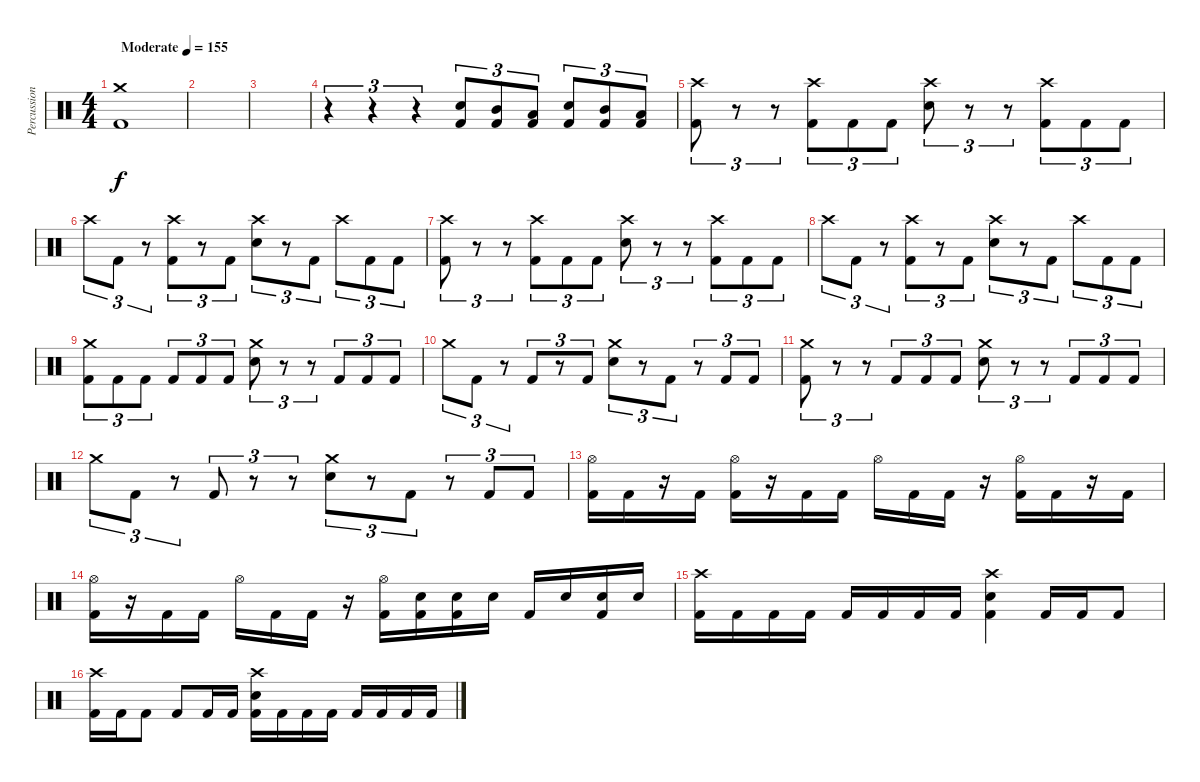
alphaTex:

\track ("Percussion" "Percussion") {instrument percussion}
\staff {score}
\articulation defaults
\ts (4 4)
\tempo (155 "Moderate")
\clef neutral
\ks c
("Crash medium (hit)" "Kick (hit) 2").1{dy f} |
|
|
r.4{tu (3 2)} r.4{tu (3 2)} r.4{tu (3 2)} ("Electric Snare (hit)" "Kick (hit) 2").8{tu (3 2)} ("Mid Tom (hit)" "Kick (hit) 2").8{tu (3 2)} ("Low Tom (hit)" "Kick (hit) 2").8{tu (3 2)} ("Electric Snare (hit)" "Kick (hit) 2").8{tu (3 2)} ("Mid Tom (hit)" "Kick (hit) 2").8{tu (3 2)} ("Low Tom (hit)" "Kick (hit) 2").8{tu (3 2)} |
("Crash high (hit)" "Kick (hit) 2").8{tu (3 2)} r.8{tu (3 2)} r.8{tu (3 2)} ("Crash high (hit)" "Kick (hit) 2").8{tu (3 2)} "Kick (hit) 2".8{tu (3 2)} "Kick (hit) 2".8{tu (3 2)} ("Crash high (hit)" "Electric Snare (hit)").8{tu (3 2)} r.8{tu (3 2)} r.8{tu (3 2)} ("Crash high (hit)" "Kick (hit) 2").8{tu (3 2)} "Kick (hit) 2".8{tu (3 2)} "Kick (hit) 2".8{tu (3 2)} |
"Crash high (hit)".8{tu (3 2)} "Kick (hit) 2".8{tu (3 2)} r.8{tu (3 2)} ("Crash high (hit)" "Kick (hit) 2").8{tu (3 2)} r.8{tu (3 2)} "Kick (hit) 2".8{tu (3 2)} ("Crash high (hit)" "Electric Snare (hit)").8{tu (3 2)} r.8{tu (3 2)} "Kick (hit) 2".8{tu (3 2)} "Crash high (hit)".8{tu (3 2)} "Kick (hit) 2".8{tu (3 2)} "Kick (hit) 2".8{tu (3 2)} |
("Crash high (hit)" "Kick (hit) 2").8{tu (3 2)} r.8{tu (3 2)} r.8{tu (3 2)} ("Crash high (hit)" "Kick (hit) 2").8{tu (3 2)} "Kick (hit) 2".8{tu (3 2)} "Kick (hit) 2".8{tu (3 2)} ("Crash high (hit)" "Electric Snare (hit)").8{tu (3 2)} r.8{tu (3 2)} r.8{tu (3 2)} ("Crash high (hit)" "Kick (hit) 2").8{tu (3 2)} "Kick (hit) 2".8{tu (3 2)} "Kick (hit) 2".8{tu (3 2)} |
"Crash high (hit)".8{tu (3 2)} "Kick (hit) 2".8{tu (3 2)} r.8{tu (3 2)} ("Crash high (hit)" "Kick (hit) 2").8{tu (3 2)} r.8{tu (3 2)} "Kick (hit) 2".8{tu (3 2)} ("Crash high (hit)" "Electric Snare (hit)").8{tu (3 2)} r.8{tu (3 2)} "Kick (hit) 2".8{tu (3 2)} "Crash high (hit)".8{tu (3 2)} "Kick (hit) 2".8{tu (3 2)} "Kick (hit) 2".8{tu (3 2)} |
("Crash medium (hit)" "Kick (hit) 2").8{tu (3 2)} "Kick (hit) 2".8{tu (3 2)} "Kick (hit) 2".8{tu (3 2)} "Kick (hit) 2".8{tu (3 2)} "Kick (hit) 2".8{tu (3 2)} "Kick (hit) 2".8{tu (3 2)} ("Crash medium (hit)" "Electric Snare (hit)").8{tu (3 2)} r.8{tu (3 2)} r.8{tu (3 2)} "Kick (hit) 2".8{tu (3 2)} "Kick (hit) 2".8{tu (3 2)} "Kick (hit) 2".8{tu (3 2)} |
"Crash medium (hit)".8{tu (3 2)} "Kick (hit) 2".8{tu (3 2)} r.8{tu (3 2)} "Kick (hit) 2".8{tu (3 2)} r.8{tu (3 2)} "Kick (hit) 2".8{tu (3 2)} ("Crash medium (hit)" "Electric Snare (hit)").8{tu (3 2)} r.8{tu (3 2)} "Kick (hit) 2".8{tu (3 2)} r.8{tu (3 2)} "Kick (hit) 2".8{tu (3 2)} "Kick (hit) 2".8{tu (3 2)} |
("Crash medium (hit)" "Kick (hit) 2").8{tu (3 2)} r.8{tu (3 2)} r.8{tu (3 2)} "Kick (hit) 2".8{tu (3 2)} "Kick (hit) 2".8{tu (3 2)} "Kick (hit) 2".8{tu (3 2)} ("Crash medium (hit)" "Electric Snare (hit)").8{tu (3 2)} r.8{tu (3 2)} r.8{tu (3 2)} "Kick (hit) 2".8{tu (3 2)} "Kick (hit) 2".8{tu (3 2)} "Kick (hit) 2".8{tu (3 2)} |
"Crash medium (hit)".8{tu (3 2)} "Kick (hit) 2".8{tu (3 2)} r.8{tu (3 2)} "Kick (hit) 2".8{tu (3 2)} r.8{tu (3 2)} r.8{tu (3 2)} ("Crash medium (hit)" "Electric Snare (hit)").8{tu (3 2)} r.8{tu (3 2)} "Kick (hit) 2".8{tu (3 2)} r.8{tu (3 2)} "Kick (hit) 2".8{tu (3 2)} "Kick (hit) 2".8{tu (3 2)} |
("Hi-Hat (open)" "Kick (hit) 2").16 "Kick (hit) 2".16 r.16 "Kick (hit) 2".16 ("Hi-Hat (open)" "Kick (hit) 2").16 r.16 "Kick (hit) 2".16 "Kick (hit) 2".16 "Hi-Hat (open)".16 "Kick (hit) 2".16 "Kick (hit) 2".16 r.16 ("Hi-Hat (open)" "Kick (hit) 2").16 "Kick (hit) 2".16 r.16 "Kick (hit) 2".16 |
("Hi-Hat (open)" "Kick (hit) 2").16 r.16 "Kick (hit) 2".16 "Kick (hit) 2".16 "Hi-Hat (open)".16 "Kick (hit) 2".16 "Kick (hit) 2".16 r.16 ("Hi-Hat (open)" "Kick (hit) 2").16 ("Electric Snare (hit)" "Kick (hit) 2").16 ("Electric Snare (hit)" "Kick (hit) 2").16 "Electric Snare (hit)".16 "Kick (hit) 2".16 "Electric Snare (hit)".16 ("Electric Snare (hit)" "Kick (hit) 2").16 "Electric Snare (hit)".16 |
("Crash high (hit)" "Kick (hit) 2").16 "Kick (hit) 2".16 "Kick (hit) 2".16 "Kick (hit) 2".16 "Kick (hit) 2".16 "Kick (hit) 2".16 "Kick (hit) 2".16 "Kick (hit) 2".16 ("Crash high (hit)" "Electric Snare (hit)" "Kick (hit) 2").4 "Kick (hit) 2".16 "Kick (hit) 2".16 "Kick (hit) 2".8 |
("Crash high (hit)" "Kick (hit) 2").16 "Kick (hit) 2".16 "Kick (hit) 2".8 "Kick (hit) 2".8 "Kick (hit) 2".16 "Kick (hit) 2".16 ("Crash high (hit)" "Electric Snare (hit)" "Kick (hit) 2").16 "Kick (hit) 2".16 "Kick (hit) 2".16 "Kick (hit) 2".16 "Kick (hit) 2".16 "Kick (hit) 2".16 "Kick (hit) 2".16 "Kick (hit) 2".16
